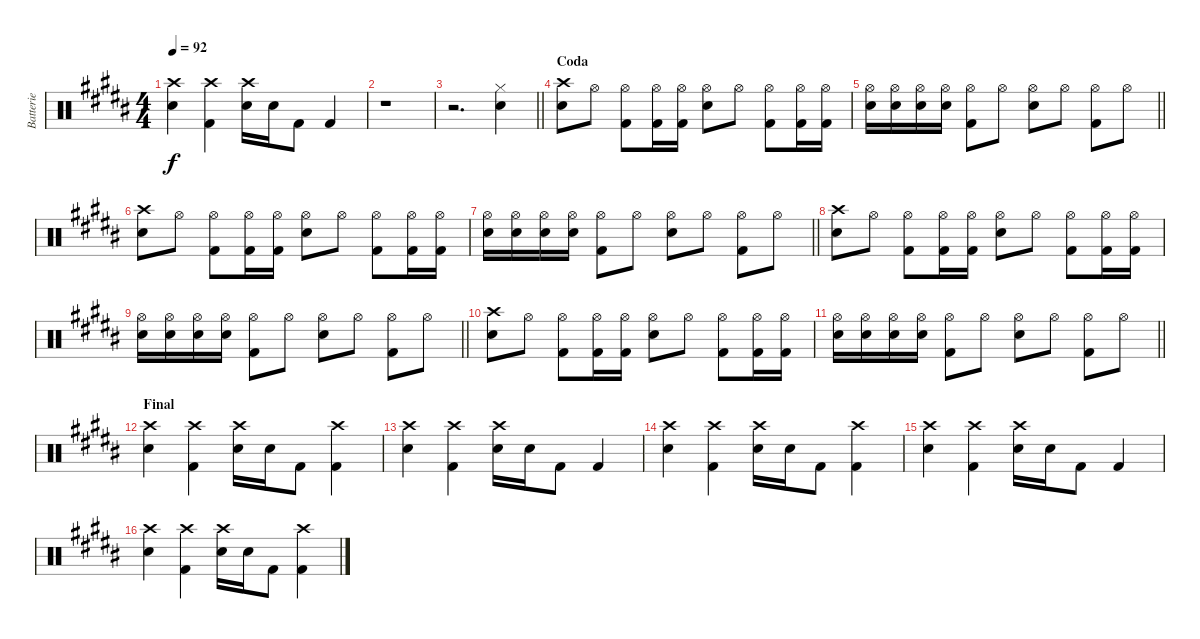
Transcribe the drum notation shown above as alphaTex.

\track ("Batterie" "Batterie") {instrument percussion}
\staff {score}
\articulation defaults
\ts (4 4)
\tempo 92
\clef neutral
\ks b
("Crash high (hit)" "Snare (hit) 2").4{dy f} ("Crash high (hit)" "Kick (hit) 2").4 ("Crash high (hit)" "Snare (hit) 2").16 "Snare (hit) 2".16 "Kick (hit) 2".8 "Kick (hit) 2".4 |
r.1 |
\barLineRight lightlight
r.2{d} ("Hi-Hat (closed)" "Snare (hit) 2").4 |
\section ("" "Coda")
("Crash high (hit)" "Snare (hit) 2").8 "Hi-Hat (open)".8 ("Hi-Hat (open)" "Kick (hit) 2").8 ("Hi-Hat (open)" "Kick (hit) 2").16 ("Hi-Hat (open)" "Kick (hit) 2").16 ("Hi-Hat (open)" "Snare (hit) 2").8 "Hi-Hat (open)".8 ("Hi-Hat (open)" "Kick (hit) 2").8 ("Hi-Hat (open)" "Kick (hit) 2").16 ("Hi-Hat (open)" "Kick (hit) 2").16 |
\barLineRight lightlight
("Hi-Hat (open)" "Snare (hit) 2").16 ("Hi-Hat (open)" "Snare (hit) 2").16 ("Hi-Hat (open)" "Snare (hit) 2").16 ("Hi-Hat (open)" "Snare (hit) 2").16 ("Hi-Hat (open)" "Kick (hit) 2").8 "Hi-Hat (open)".8 ("Hi-Hat (open)" "Snare (hit) 2").8 "Hi-Hat (open)".8 ("Hi-Hat (open)" "Kick (hit) 2").8 "Hi-Hat (open)".8 |
("Crash high (hit)" "Snare (hit) 2").8 "Hi-Hat (open)".8 ("Hi-Hat (open)" "Kick (hit) 2").8 ("Hi-Hat (open)" "Kick (hit) 2").16 ("Hi-Hat (open)" "Kick (hit) 2").16 ("Hi-Hat (open)" "Snare (hit) 2").8 "Hi-Hat (open)".8 ("Hi-Hat (open)" "Kick (hit) 2").8 ("Hi-Hat (open)" "Kick (hit) 2").16 ("Hi-Hat (open)" "Kick (hit) 2").16 |
\barLineRight lightlight
("Hi-Hat (open)" "Snare (hit) 2").16 ("Hi-Hat (open)" "Snare (hit) 2").16 ("Hi-Hat (open)" "Snare (hit) 2").16 ("Hi-Hat (open)" "Snare (hit) 2").16 ("Hi-Hat (open)" "Kick (hit) 2").8 "Hi-Hat (open)".8 ("Hi-Hat (open)" "Snare (hit) 2").8 "Hi-Hat (open)".8 ("Hi-Hat (open)" "Kick (hit) 2").8 "Hi-Hat (open)".8 |
("Crash high (hit)" "Snare (hit) 2").8 "Hi-Hat (open)".8 ("Hi-Hat (open)" "Kick (hit) 2").8 ("Hi-Hat (open)" "Kick (hit) 2").16 ("Hi-Hat (open)" "Kick (hit) 2").16 ("Hi-Hat (open)" "Snare (hit) 2").8 "Hi-Hat (open)".8 ("Hi-Hat (open)" "Kick (hit) 2").8 ("Hi-Hat (open)" "Kick (hit) 2").16 ("Hi-Hat (open)" "Kick (hit) 2").16 |
\barLineRight lightlight
("Hi-Hat (open)" "Snare (hit) 2").16 ("Hi-Hat (open)" "Snare (hit) 2").16 ("Hi-Hat (open)" "Snare (hit) 2").16 ("Hi-Hat (open)" "Snare (hit) 2").16 ("Hi-Hat (open)" "Kick (hit) 2").8 "Hi-Hat (open)".8 ("Hi-Hat (open)" "Snare (hit) 2").8 "Hi-Hat (open)".8 ("Hi-Hat (open)" "Kick (hit) 2").8 "Hi-Hat (open)".8 |
("Crash high (hit)" "Snare (hit) 2").8 "Hi-Hat (open)".8 ("Hi-Hat (open)" "Kick (hit) 2").8 ("Hi-Hat (open)" "Kick (hit) 2").16 ("Hi-Hat (open)" "Kick (hit) 2").16 ("Hi-Hat (open)" "Snare (hit) 2").8 "Hi-Hat (open)".8 ("Hi-Hat (open)" "Kick (hit) 2").8 ("Hi-Hat (open)" "Kick (hit) 2").16 ("Hi-Hat (open)" "Kick (hit) 2").16 |
\barLineRight lightlight
("Hi-Hat (open)" "Snare (hit) 2").16 ("Hi-Hat (open)" "Snare (hit) 2").16 ("Hi-Hat (open)" "Snare (hit) 2").16 ("Hi-Hat (open)" "Snare (hit) 2").16 ("Hi-Hat (open)" "Kick (hit) 2").8 "Hi-Hat (open)".8 ("Hi-Hat (open)" "Snare (hit) 2").8 "Hi-Hat (open)".8 ("Hi-Hat (open)" "Kick (hit) 2").8 "Hi-Hat (open)".8 |
\section ("" "Final")
("Crash high (hit)" "Snare (hit) 2").4 ("Crash high (hit)" "Kick (hit) 2").4 ("Crash high (hit)" "Snare (hit) 2").16 "Snare (hit) 2".16 "Kick (hit) 2".8 ("Crash high (hit)" "Kick (hit) 2").4 |
("Crash high (hit)" "Snare (hit) 2").4 ("Crash high (hit)" "Kick (hit) 2").4 ("Crash high (hit)" "Snare (hit) 2").16 "Snare (hit) 2".16 "Kick (hit) 2".8 "Kick (hit) 2".4 |
("Crash high (hit)" "Snare (hit) 2").4 ("Crash high (hit)" "Kick (hit) 2").4 ("Crash high (hit)" "Snare (hit) 2").16 "Snare (hit) 2".16 "Kick (hit) 2".8 ("Crash high (hit)" "Kick (hit) 2").4 |
("Crash high (hit)" "Snare (hit) 2").4 ("Crash high (hit)" "Kick (hit) 2").4 ("Crash high (hit)" "Snare (hit) 2").16 "Snare (hit) 2".16 "Kick (hit) 2".8 "Kick (hit) 2".4 |
("Crash high (hit)" "Snare (hit) 2").4 ("Crash high (hit)" "Kick (hit) 2").4 ("Crash high (hit)" "Snare (hit) 2").16 "Snare (hit) 2".16 "Kick (hit) 2".8 ("Crash high (hit)" "Kick (hit) 2").4
